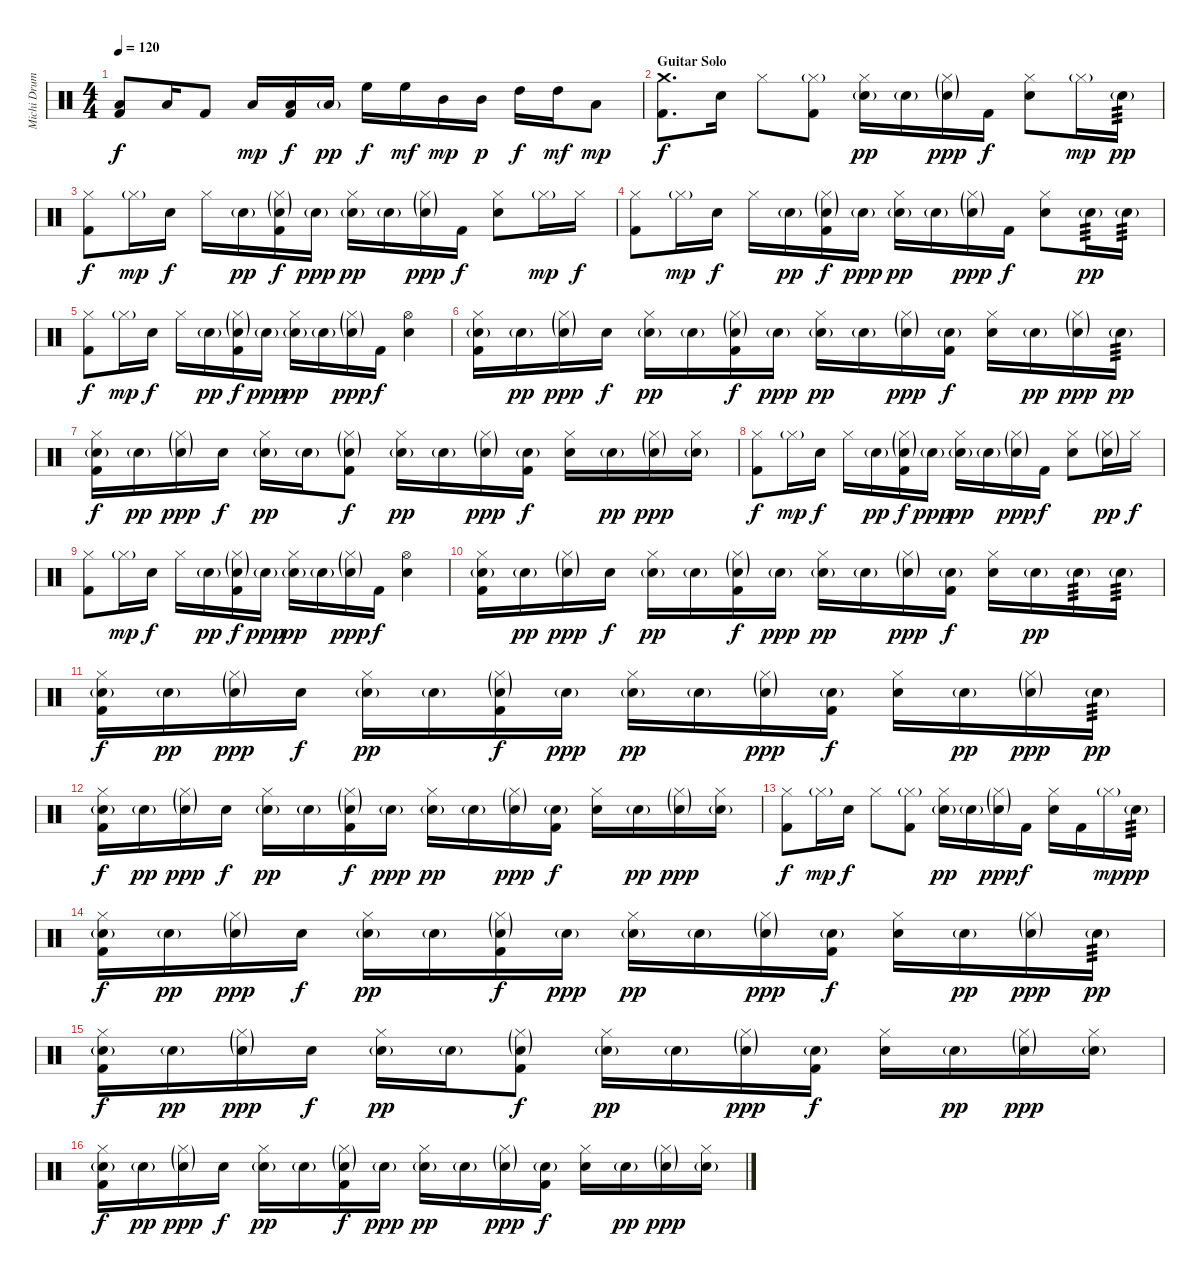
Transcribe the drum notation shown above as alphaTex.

\track ("Michi Drums" "Michi Drum") {instrument percussion}
\staff {score}
\articulation defaults
\ts (4 4)
\tempo 120
\clef neutral
\ks c
("Low Floor Tom (hit)" "Kick (hit) 2").8{dy f} "Low Floor Tom (hit)".16 "Kick (hit) 2".8 "Low Tom (hit)".16{dy mp} ("Low Tom (hit)" "Kick (hit) 2").16{dy f} "Low Tom (hit)"{g}.16{dy pp} "High Floor Tom (hit)".16{dy f} "High Floor Tom (hit)".16{dy mf} "Mid Tom (hit)".16{dy mp} "Mid Tom (hit)".16{dy p} "High Tom (hit)".16{dy f} "High Tom (hit)".16{dy mf} "Low Tom (hit)".8{dy mp} |
\section ("" "Guitar Solo")
("Crash medium (hit)" "Kick (hit) 2").8{d dy f} "Electric Snare (hit)".16 "Hi-Hat (closed)".8 ("Hi-Hat (closed)"{g} "Kick (hit) 2").8 ("Hi-Hat (closed)" "Electric Snare (hit)"{g}).16{dy pp} "Electric Snare (hit)"{g}.16 ("Hi-Hat (closed)"{g} "Electric Snare (hit)"{g}).16{dy ppp} "Kick (hit) 2".16{dy f} ("Hi-Hat (closed)" "Electric Snare (hit)").8 "Hi-Hat (closed)"{g}.16{dy mp} "Electric Snare (hit)"{g}.16{tp 3 dy pp} |
("Hi-Hat (closed)" "Kick (hit) 2").8{dy f} "Hi-Hat (closed)"{g}.16{dy mp} "Electric Snare (hit)".16{dy f} "Hi-Hat (closed)".16 "Electric Snare (hit)"{g}.16{dy pp} ("Hi-Hat (closed)"{g} "Electric Snare (hit)"{g} "Kick (hit) 2").16{dy f} "Electric Snare (hit)"{g}.16{dy ppp} ("Hi-Hat (closed)" "Electric Snare (hit)"{g}).16{dy pp} "Electric Snare (hit)"{g}.16 ("Hi-Hat (closed)"{g} "Electric Snare (hit)"{g}).16{dy ppp} "Kick (hit) 2".16{dy f} ("Hi-Hat (closed)" "Electric Snare (hit)").8 "Hi-Hat (closed)"{g}.16{dy mp} "Hi-Hat (closed)".16{dy f} |
("Hi-Hat (closed)" "Kick (hit) 2").8 "Hi-Hat (closed)"{g}.16{dy mp} "Electric Snare (hit)".16{dy f} "Hi-Hat (closed)".16 "Electric Snare (hit)"{g}.16{dy pp} ("Hi-Hat (closed)"{g} "Electric Snare (hit)"{g} "Kick (hit) 2").16{dy f} "Electric Snare (hit)"{g}.16{dy ppp} ("Hi-Hat (closed)" "Electric Snare (hit)"{g}).16{dy pp} "Electric Snare (hit)"{g}.16 ("Hi-Hat (closed)"{g} "Electric Snare (hit)"{g}).16{dy ppp} "Kick (hit) 2".16{dy f} ("Hi-Hat (closed)" "Electric Snare (hit)").8 "Electric Snare (hit)"{g}.16{tp 3 dy pp} "Electric Snare (hit)"{g}.16{tp 3} |
("Hi-Hat (closed)" "Kick (hit) 2").8{dy f} "Hi-Hat (closed)"{g}.16{dy mp} "Electric Snare (hit)".16{dy f} "Hi-Hat (closed)".16 "Electric Snare (hit)"{g}.16{dy pp} ("Hi-Hat (closed)"{g} "Electric Snare (hit)"{g} "Kick (hit) 2").16{dy f} "Electric Snare (hit)"{g}.16{dy ppp} ("Hi-Hat (closed)" "Electric Snare (hit)"{g}).16{dy pp} "Electric Snare (hit)"{g}.16 ("Hi-Hat (closed)"{g} "Electric Snare (hit)"{g}).16{dy ppp} "Kick (hit) 2".16{dy f} ("Hi-Hat (open)" "Electric Snare (hit)").4 |
("Hi-Hat (closed)" "Electric Snare (hit)"{g} "Kick (hit) 2").16 "Electric Snare (hit)"{g}.16{dy pp} ("Hi-Hat (closed)"{g} "Electric Snare (hit)"{g}).16{dy ppp} "Electric Snare (hit)".16{dy f} ("Hi-Hat (closed)" "Electric Snare (hit)"{g}).16{dy pp} "Electric Snare (hit)"{g}.16 ("Hi-Hat (closed)"{g} "Electric Snare (hit)"{g} "Kick (hit) 2").16{dy f} "Electric Snare (hit)"{g}.16{dy ppp} ("Hi-Hat (closed)" "Electric Snare (hit)"{g}).16{dy pp} "Electric Snare (hit)"{g}.16 ("Hi-Hat (closed)"{g} "Electric Snare (hit)"{g}).16{dy ppp} ("Electric Snare (hit)"{g} "Kick (hit) 2").16{dy f} ("Hi-Hat (closed)" "Electric Snare (hit)").16 "Electric Snare (hit)"{g}.16{dy pp} ("Hi-Hat (closed)"{g} "Electric Snare (hit)"{g}).16{dy ppp} "Electric Snare (hit)"{g}.16{tp 3 dy pp} |
("Hi-Hat (closed)" "Electric Snare (hit)"{g} "Kick (hit) 2").16{dy f} "Electric Snare (hit)"{g}.16{dy pp} ("Hi-Hat (closed)"{g} "Electric Snare (hit)"{g}).16{dy ppp} "Electric Snare (hit)".16{dy f} ("Hi-Hat (closed)" "Electric Snare (hit)"{g}).16{dy pp} "Electric Snare (hit)"{g}.16 ("Hi-Hat (closed)"{g} "Electric Snare (hit)"{g} "Kick (hit) 2").8{dy f} ("Hi-Hat (closed)" "Electric Snare (hit)"{g}).16{dy pp} "Electric Snare (hit)"{g}.16 ("Hi-Hat (closed)"{g} "Electric Snare (hit)"{g}).16{dy ppp} ("Electric Snare (hit)"{g} "Kick (hit) 2").16{dy f} ("Hi-Hat (closed)" "Electric Snare (hit)").16 "Electric Snare (hit)"{g}.16{dy pp} ("Hi-Hat (closed)"{g} "Electric Snare (hit)"{g}).16{dy ppp} ("Hi-Hat (closed)" "Electric Snare (hit)"{g}).16 |
("Hi-Hat (closed)" "Kick (hit) 2").8{dy f} "Hi-Hat (closed)"{g}.16{dy mp} "Electric Snare (hit)".16{dy f} "Hi-Hat (closed)".16 "Electric Snare (hit)"{g}.16{dy pp} ("Hi-Hat (closed)"{g} "Electric Snare (hit)"{g} "Kick (hit) 2").16{dy f} "Electric Snare (hit)"{g}.16{dy ppp} ("Hi-Hat (closed)" "Electric Snare (hit)"{g}).16{dy pp} "Electric Snare (hit)"{g}.16 ("Hi-Hat (closed)"{g} "Electric Snare (hit)"{g}).16{dy ppp} "Kick (hit) 2".16{dy f} ("Hi-Hat (closed)" "Electric Snare (hit)").8 ("Hi-Hat (closed)"{g} "Electric Snare (hit)"{g}).16{dy pp} "Hi-Hat (closed)".16{dy f} |
("Hi-Hat (closed)" "Kick (hit) 2").8 "Hi-Hat (closed)"{g}.16{dy mp} "Electric Snare (hit)".16{dy f} "Hi-Hat (closed)".16 "Electric Snare (hit)"{g}.16{dy pp} ("Hi-Hat (closed)"{g} "Electric Snare (hit)"{g} "Kick (hit) 2").16{dy f} "Electric Snare (hit)"{g}.16{dy ppp} ("Hi-Hat (closed)" "Electric Snare (hit)"{g}).16{dy pp} "Electric Snare (hit)"{g}.16 ("Hi-Hat (closed)"{g} "Electric Snare (hit)"{g}).16{dy ppp} "Kick (hit) 2".16{dy f} ("Hi-Hat (open)" "Electric Snare (hit)").4 |
("Hi-Hat (closed)" "Electric Snare (hit)"{g} "Kick (hit) 2").16 "Electric Snare (hit)"{g}.16{dy pp} ("Hi-Hat (closed)"{g} "Electric Snare (hit)"{g}).16{dy ppp} "Electric Snare (hit)".16{dy f} ("Hi-Hat (closed)" "Electric Snare (hit)"{g}).16{dy pp} "Electric Snare (hit)"{g}.16 ("Hi-Hat (closed)"{g} "Electric Snare (hit)"{g} "Kick (hit) 2").16{dy f} "Electric Snare (hit)"{g}.16{dy ppp} ("Hi-Hat (closed)" "Electric Snare (hit)"{g}).16{dy pp} "Electric Snare (hit)"{g}.16 ("Hi-Hat (closed)"{g} "Electric Snare (hit)"{g}).16{dy ppp} ("Electric Snare (hit)"{g} "Kick (hit) 2").16{dy f} ("Hi-Hat (closed)" "Electric Snare (hit)").16 "Electric Snare (hit)"{g}.16{dy pp} "Electric Snare (hit)"{g}.16{tp 3} "Electric Snare (hit)"{g}.16{tp 3} |
("Hi-Hat (closed)" "Electric Snare (hit)"{g} "Kick (hit) 2").16{dy f} "Electric Snare (hit)"{g}.16{dy pp} ("Hi-Hat (closed)"{g} "Electric Snare (hit)"{g}).16{dy ppp} "Electric Snare (hit)".16{dy f} ("Hi-Hat (closed)" "Electric Snare (hit)"{g}).16{dy pp} "Electric Snare (hit)"{g}.16 ("Hi-Hat (closed)"{g} "Electric Snare (hit)"{g} "Kick (hit) 2").16{dy f} "Electric Snare (hit)"{g}.16{dy ppp} ("Hi-Hat (closed)" "Electric Snare (hit)"{g}).16{dy pp} "Electric Snare (hit)"{g}.16 ("Hi-Hat (closed)"{g} "Electric Snare (hit)"{g}).16{dy ppp} ("Electric Snare (hit)"{g} "Kick (hit) 2").16{dy f} ("Hi-Hat (closed)" "Electric Snare (hit)").16 "Electric Snare (hit)"{g}.16{dy pp} ("Hi-Hat (closed)"{g} "Electric Snare (hit)"{g}).16{dy ppp} "Electric Snare (hit)"{g}.16{tp 3 dy pp} |
("Hi-Hat (closed)" "Electric Snare (hit)"{g} "Kick (hit) 2").16{dy f} "Electric Snare (hit)"{g}.16{dy pp} ("Hi-Hat (closed)"{g} "Electric Snare (hit)"{g}).16{dy ppp} "Electric Snare (hit)".16{dy f} ("Hi-Hat (closed)" "Electric Snare (hit)"{g}).16{dy pp} "Electric Snare (hit)"{g}.16 ("Hi-Hat (closed)"{g} "Electric Snare (hit)"{g} "Kick (hit) 2").16{dy f} "Electric Snare (hit)"{g}.16{dy ppp} ("Hi-Hat (closed)" "Electric Snare (hit)"{g}).16{dy pp} "Electric Snare (hit)"{g}.16 ("Hi-Hat (closed)"{g} "Electric Snare (hit)"{g}).16{dy ppp} ("Electric Snare (hit)"{g} "Kick (hit) 2").16{dy f} ("Hi-Hat (closed)" "Electric Snare (hit)").16 "Electric Snare (hit)"{g}.16{dy pp} ("Hi-Hat (closed)"{g} "Electric Snare (hit)"{g}).16{dy ppp} ("Hi-Hat (closed)" "Electric Snare (hit)"{g}).16 |
("Hi-Hat (closed)" "Kick (hit) 2").8{dy f} "Hi-Hat (closed)"{g}.16{dy mp} "Electric Snare (hit)".16{dy f} "Hi-Hat (closed)".8 ("Hi-Hat (closed)"{g} "Kick (hit) 2").8 ("Hi-Hat (closed)" "Electric Snare (hit)"{g}).16{dy pp} "Electric Snare (hit)"{g}.16 ("Hi-Hat (closed)"{g} "Electric Snare (hit)"{g}).16{dy ppp} "Kick (hit) 2".16{dy f} ("Hi-Hat (closed)" "Electric Snare (hit)").16 "Kick (hit) 2".16 "Hi-Hat (closed)"{g}.16{dy mp} "Electric Snare (hit)"{g}.16{tp 3 dy pp} |
("Hi-Hat (closed)" "Electric Snare (hit)"{g} "Kick (hit) 2").16{dy f} "Electric Snare (hit)"{g}.16{dy pp} ("Hi-Hat (closed)"{g} "Electric Snare (hit)"{g}).16{dy ppp} "Electric Snare (hit)".16{dy f} ("Hi-Hat (closed)" "Electric Snare (hit)"{g}).16{dy pp} "Electric Snare (hit)"{g}.16 ("Hi-Hat (closed)"{g} "Electric Snare (hit)"{g} "Kick (hit) 2").16{dy f} "Electric Snare (hit)"{g}.16{dy ppp} ("Hi-Hat (closed)" "Electric Snare (hit)"{g}).16{dy pp} "Electric Snare (hit)"{g}.16 ("Hi-Hat (closed)"{g} "Electric Snare (hit)"{g}).16{dy ppp} ("Electric Snare (hit)"{g} "Kick (hit) 2").16{dy f} ("Hi-Hat (closed)" "Electric Snare (hit)").16 "Electric Snare (hit)"{g}.16{dy pp} ("Hi-Hat (closed)"{g} "Electric Snare (hit)"{g}).16{dy ppp} "Electric Snare (hit)"{g}.16{tp 3 dy pp} |
("Hi-Hat (closed)" "Electric Snare (hit)"{g} "Kick (hit) 2").16{dy f} "Electric Snare (hit)"{g}.16{dy pp} ("Hi-Hat (closed)"{g} "Electric Snare (hit)"{g}).16{dy ppp} "Electric Snare (hit)".16{dy f} ("Hi-Hat (closed)" "Electric Snare (hit)"{g}).16{dy pp} "Electric Snare (hit)"{g}.16 ("Hi-Hat (closed)"{g} "Electric Snare (hit)"{g} "Kick (hit) 2").8{dy f} ("Hi-Hat (closed)" "Electric Snare (hit)"{g}).16{dy pp} "Electric Snare (hit)"{g}.16 ("Hi-Hat (closed)"{g} "Electric Snare (hit)"{g}).16{dy ppp} ("Electric Snare (hit)"{g} "Kick (hit) 2").16{dy f} ("Hi-Hat (closed)" "Electric Snare (hit)").16 "Electric Snare (hit)"{g}.16{dy pp} ("Hi-Hat (closed)"{g} "Electric Snare (hit)"{g}).16{dy ppp} ("Hi-Hat (closed)" "Electric Snare (hit)"{g}).16 |
("Hi-Hat (closed)" "Electric Snare (hit)"{g} "Kick (hit) 2").16{dy f} "Electric Snare (hit)"{g}.16{dy pp} ("Hi-Hat (closed)"{g} "Electric Snare (hit)"{g}).16{dy ppp} "Electric Snare (hit)".16{dy f} ("Hi-Hat (closed)" "Electric Snare (hit)"{g}).16{dy pp} "Electric Snare (hit)"{g}.16 ("Hi-Hat (closed)"{g} "Electric Snare (hit)"{g} "Kick (hit) 2").16{dy f} "Electric Snare (hit)"{g}.16{dy ppp} ("Hi-Hat (closed)" "Electric Snare (hit)"{g}).16{dy pp} "Electric Snare (hit)"{g}.16 ("Hi-Hat (closed)"{g} "Electric Snare (hit)"{g}).16{dy ppp} ("Electric Snare (hit)"{g} "Kick (hit) 2").16{dy f} ("Hi-Hat (closed)" "Electric Snare (hit)").16 "Electric Snare (hit)"{g}.16{dy pp} ("Hi-Hat (closed)"{g} "Electric Snare (hit)"{g}).16{dy ppp} ("Hi-Hat (closed)" "Electric Snare (hit)"{g}).16
